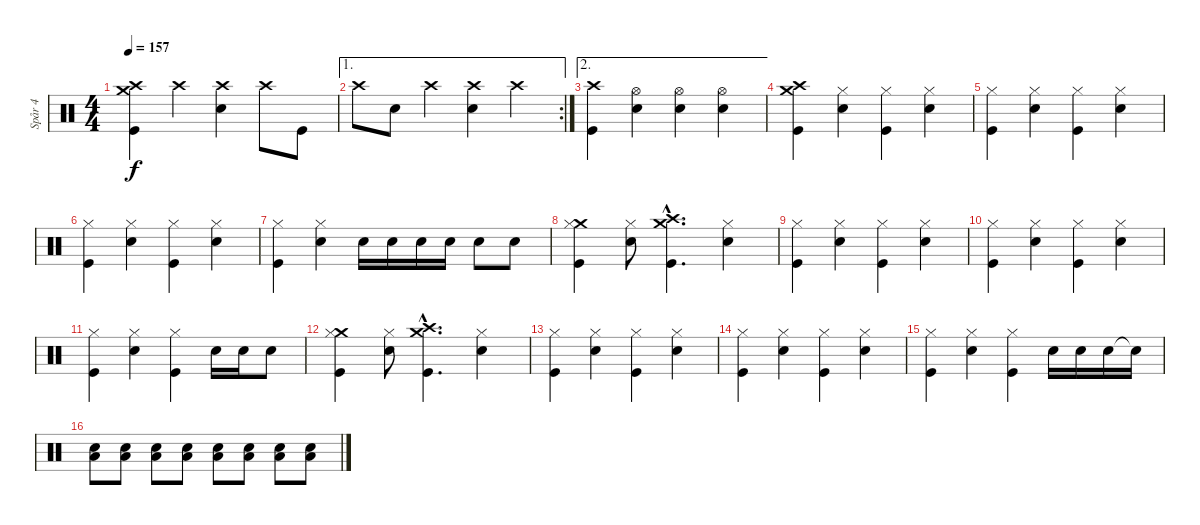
\track ("Spår 4" "Spår 4") {instrument percussion}
\staff {score}
\articulation defaults
\ts (4 4)
\tempo 157
\clef neutral
\ks c
("Crash medium (hit)" "Crash high (hit)" "Kick (hit)").4{dy f} "Crash high (hit)".4 ("Crash high (hit)" "Snare (hit) 2").4 "Crash high (hit)".8 "Kick (hit)".8 |
\ae 1
\rc 2 "Crash high (hit)".8 "Snare (hit) 2".8 "Crash high (hit)".4
("Crash high (hit)" "Snare (hit) 2").4 "Crash high (hit)".4 |
\ae 2
("Crash high (hit)" "Kick (hit)").4 ("Hi-Hat (open)" "Snare (hit) 2").4 ("Hi-Hat (open)" "Snare (hit) 2").4 ("Hi-Hat (open)" "Snare (hit) 2").4 |
("Crash medium (hit)" "Crash high (hit)" "Kick (hit)").4 ("Hi-Hat (closed)" "Snare (hit) 2").4 ("Hi-Hat (closed)" "Kick (hit)").4 ("Hi-Hat (closed)" "Snare (hit) 2").4 |
("Hi-Hat (closed)" "Kick (hit)").4 ("Hi-Hat (closed)" "Snare (hit) 2").4 ("Hi-Hat (closed)" "Kick (hit)").4 ("Hi-Hat (closed)" "Snare (hit) 2").4 |
("Hi-Hat (closed)" "Kick (hit)").4 ("Hi-Hat (closed)" "Snare (hit) 2").4 ("Hi-Hat (closed)" "Kick (hit)").4 ("Hi-Hat (closed)" "Snare (hit) 2").4 |
("Hi-Hat (closed)" "Kick (hit)").4 ("Hi-Hat (closed)" "Snare (hit) 2").4 "Snare (hit) 2".16 "Snare (hit) 2".16 "Snare (hit) 2".16 "Snare (hit) 2".16 "Snare (hit) 2".8 "Snare (hit) 2".8 |
("Crash medium (hit)" "Hi-Hat (closed)" "Kick (hit)").4 ("Hi-Hat (closed)" "Snare (hit) 2").8 ("Crash medium (hit)"{hac} "Crash high (hit)"{hac} "Kick (hit)"{hac}).4{d} ("Hi-Hat (closed)" "Snare (hit) 2").4 |
("Hi-Hat (closed)" "Kick (hit)").4 ("Hi-Hat (closed)" "Snare (hit) 2").4 ("Hi-Hat (closed)" "Kick (hit)").4 ("Hi-Hat (closed)" "Snare (hit) 2").4 |
("Hi-Hat (closed)" "Kick (hit)").4 ("Hi-Hat (closed)" "Snare (hit) 2").4 ("Hi-Hat (closed)" "Kick (hit)").4 ("Hi-Hat (closed)" "Snare (hit) 2").4 |
("Hi-Hat (closed)" "Kick (hit)").4 ("Hi-Hat (closed)" "Snare (hit) 2").4 ("Hi-Hat (closed)" "Kick (hit)").4 "Snare (hit) 2".16 "Snare (hit) 2".16 "Snare (hit) 2".8 |
("Crash medium (hit)" "Hi-Hat (closed)" "Kick (hit)").4 ("Hi-Hat (closed)" "Snare (hit) 2").8 ("Crash medium (hit)"{hac} "Crash high (hit)"{hac} "Kick (hit)"{hac}).4{d} ("Hi-Hat (closed)" "Snare (hit) 2").4 |
("Hi-Hat (closed)" "Kick (hit)").4 ("Hi-Hat (closed)" "Snare (hit) 2").4 ("Hi-Hat (closed)" "Kick (hit)").4 ("Hi-Hat (closed)" "Snare (hit) 2").4 |
("Hi-Hat (closed)" "Kick (hit)").4 ("Hi-Hat (closed)" "Snare (hit) 2").4 ("Hi-Hat (closed)" "Kick (hit)").4 ("Hi-Hat (closed)" "Snare (hit) 2").4 |
("Hi-Hat (closed)" "Kick (hit)").4 ("Hi-Hat (closed)" "Snare (hit) 2").4 ("Hi-Hat (closed)" "Kick (hit)").4 "Snare (hit) 2".16 "Snare (hit) 2".16 "Snare (hit) 2".16 "Snare (hit) 2"{t}.16{volume 7} |
("Low Floor Tom (hit)" "Snare (hit) 2").8{volume 13} ("Low Floor Tom (hit)" "Snare (hit) 2").8 ("Low Floor Tom (hit)" "Snare (hit) 2").8 ("Low Floor Tom (hit)" "Snare (hit) 2").8 ("Low Floor Tom (hit)" "Snare (hit) 2").8 ("Low Floor Tom (hit)" "Snare (hit) 2").8 ("Low Floor Tom (hit)" "Snare (hit) 2").8 ("Low Floor Tom (hit)" "Snare (hit) 2").8
